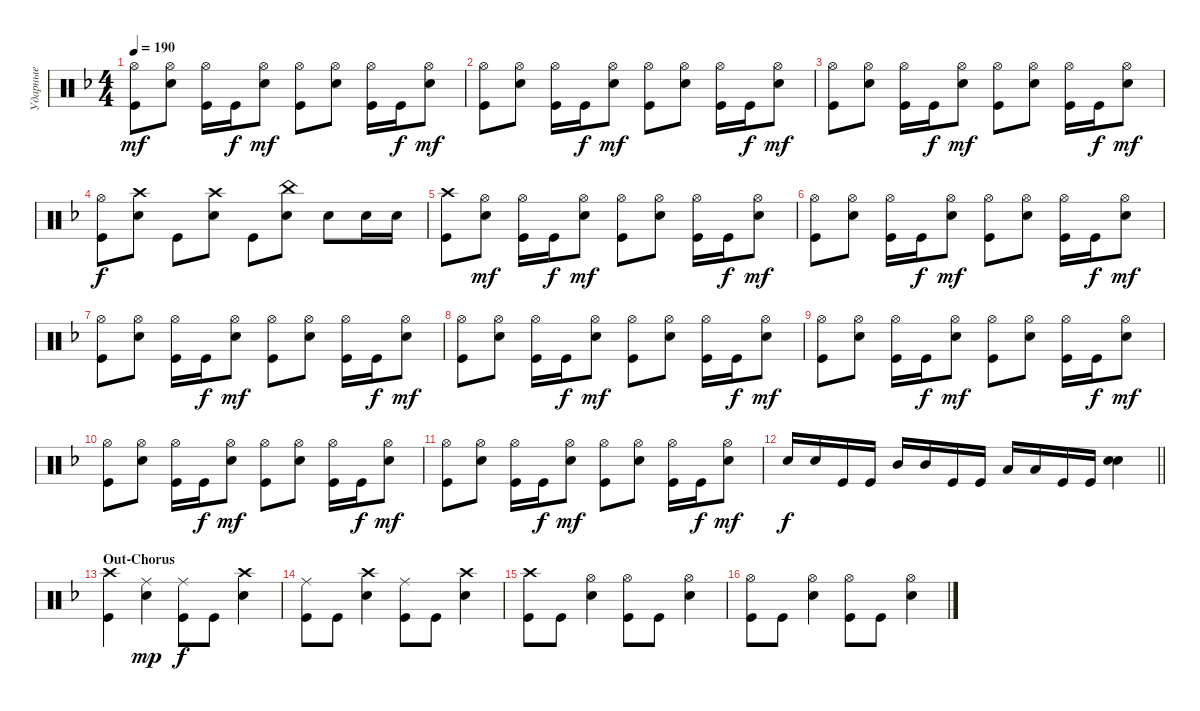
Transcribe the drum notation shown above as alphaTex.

\track ("Ударные" "Ударные") {instrument percussion}
\staff {score}
\articulation defaults
\ts (4 4)
\tempo 190
\clef neutral
\ks dminor
("Kick (hit)" "Hi-Hat (open)").8{dy mf} ("Snare (hit) 2" "Hi-Hat (open)").8 ("Kick (hit)" "Hi-Hat (open)").16 "Kick (hit)".16{dy f} ("Snare (hit) 2" "Hi-Hat (open)").8{dy mf} ("Kick (hit)" "Hi-Hat (open)").8 ("Snare (hit) 2" "Hi-Hat (open)").8 ("Kick (hit)" "Hi-Hat (open)").16 "Kick (hit)".16{dy f} ("Snare (hit) 2" "Hi-Hat (open)").8{dy mf} |
("Kick (hit)" "Hi-Hat (open)").8 ("Snare (hit) 2" "Hi-Hat (open)").8 ("Kick (hit)" "Hi-Hat (open)").16 "Kick (hit)".16{dy f} ("Snare (hit) 2" "Hi-Hat (open)").8{dy mf} ("Kick (hit)" "Hi-Hat (open)").8 ("Snare (hit) 2" "Hi-Hat (open)").8 ("Kick (hit)" "Hi-Hat (open)").16 "Kick (hit)".16{dy f} ("Snare (hit) 2" "Hi-Hat (open)").8{dy mf} |
("Kick (hit)" "Hi-Hat (open)").8 ("Snare (hit) 2" "Hi-Hat (open)").8 ("Kick (hit)" "Hi-Hat (open)").16 "Kick (hit)".16{dy f} ("Snare (hit) 2" "Hi-Hat (open)").8{dy mf} ("Kick (hit)" "Hi-Hat (open)").8 ("Snare (hit) 2" "Hi-Hat (open)").8 ("Kick (hit)" "Hi-Hat (open)").16 "Kick (hit)".16{dy f} ("Snare (hit) 2" "Hi-Hat (open)").8{dy mf} |
("Kick (hit)" "Hi-Hat (open)").8{dy f} ("Snare (hit) 2" "Crash high (hit)").8 "Kick (hit)".8 ("Snare (hit) 2" "Crash high (hit)").8 "Kick (hit)".8 ("Snare (hit) 2" "China (hit)").8 "Snare (hit) 2".8 "Snare (hit) 2".16 "Snare (hit) 2".16 |
("Kick (hit)" "Crash high (hit)").8 ("Snare (hit) 2" "Hi-Hat (open)").8{dy mf} ("Kick (hit)" "Hi-Hat (open)").16 "Kick (hit)".16{dy f} ("Snare (hit) 2" "Hi-Hat (open)").8{dy mf} ("Kick (hit)" "Hi-Hat (open)").8 ("Snare (hit) 2" "Hi-Hat (open)").8 ("Kick (hit)" "Hi-Hat (open)").16 "Kick (hit)".16{dy f} ("Snare (hit) 2" "Hi-Hat (open)").8{dy mf} |
("Kick (hit)" "Hi-Hat (open)").8 ("Snare (hit) 2" "Hi-Hat (open)").8 ("Kick (hit)" "Hi-Hat (open)").16 "Kick (hit)".16{dy f} ("Snare (hit) 2" "Hi-Hat (open)").8{dy mf} ("Kick (hit)" "Hi-Hat (open)").8 ("Snare (hit) 2" "Hi-Hat (open)").8 ("Kick (hit)" "Hi-Hat (open)").16 "Kick (hit)".16{dy f} ("Snare (hit) 2" "Hi-Hat (open)").8{dy mf} |
("Kick (hit)" "Hi-Hat (open)").8 ("Snare (hit) 2" "Hi-Hat (open)").8 ("Kick (hit)" "Hi-Hat (open)").16 "Kick (hit)".16{dy f} ("Snare (hit) 2" "Hi-Hat (open)").8{dy mf} ("Kick (hit)" "Hi-Hat (open)").8 ("Snare (hit) 2" "Hi-Hat (open)").8 ("Kick (hit)" "Hi-Hat (open)").16 "Kick (hit)".16{dy f} ("Snare (hit) 2" "Hi-Hat (open)").8{dy mf} |
("Kick (hit)" "Hi-Hat (open)").8 ("Snare (hit) 2" "Hi-Hat (open)").8 ("Kick (hit)" "Hi-Hat (open)").16 "Kick (hit)".16{dy f} ("Snare (hit) 2" "Hi-Hat (open)").8{dy mf} ("Kick (hit)" "Hi-Hat (open)").8 ("Snare (hit) 2" "Hi-Hat (open)").8 ("Kick (hit)" "Hi-Hat (open)").16 "Kick (hit)".16{dy f} ("Snare (hit) 2" "Hi-Hat (open)").8{dy mf} |
("Kick (hit)" "Hi-Hat (open)").8 ("Snare (hit) 2" "Hi-Hat (open)").8 ("Kick (hit)" "Hi-Hat (open)").16 "Kick (hit)".16{dy f} ("Snare (hit) 2" "Hi-Hat (open)").8{dy mf} ("Kick (hit)" "Hi-Hat (open)").8 ("Snare (hit) 2" "Hi-Hat (open)").8 ("Kick (hit)" "Hi-Hat (open)").16 "Kick (hit)".16{dy f} ("Snare (hit) 2" "Hi-Hat (open)").8{dy mf} |
("Kick (hit)" "Hi-Hat (open)").8 ("Snare (hit) 2" "Hi-Hat (open)").8 ("Kick (hit)" "Hi-Hat (open)").16 "Kick (hit)".16{dy f} ("Snare (hit) 2" "Hi-Hat (open)").8{dy mf} ("Kick (hit)" "Hi-Hat (open)").8 ("Snare (hit) 2" "Hi-Hat (open)").8 ("Kick (hit)" "Hi-Hat (open)").16 "Kick (hit)".16{dy f} ("Snare (hit) 2" "Hi-Hat (open)").8{dy mf} |
("Kick (hit)" "Hi-Hat (open)").8 ("Snare (hit) 2" "Hi-Hat (open)").8 ("Kick (hit)" "Hi-Hat (open)").16 "Kick (hit)".16{dy f} ("Snare (hit) 2" "Hi-Hat (open)").8{dy mf} ("Kick (hit)" "Hi-Hat (open)").8 ("Snare (hit) 2" "Hi-Hat (open)").8 ("Kick (hit)" "Hi-Hat (open)").16 "Kick (hit)".16{dy f} ("Snare (hit) 2" "Hi-Hat (open)").8{dy mf} |
\barLineRight lightlight "Snare (hit) 2".16{dy f} "Snare (hit) 2".16 "Kick (hit)".16 "Kick (hit)".16 "Mid Tom (hit)".16 "Mid Tom (hit)".16 "Kick (hit)".16 "Kick (hit)".16 "Low Tom (hit)".16 "Low Tom (hit)".16 "Kick (hit)".16 "Kick (hit)".16
("Snare (hit) 2" "Snare (hit) 2").4{bd 240} |
\section ("" "Out-Chorus")
("Kick (hit)" "Crash high (hit)").4 ("Snare (hit) 2" "Ride (middle)").4{dy mp} ("Kick (hit)" "Ride (middle)").8{dy f} "Kick (hit)".8 ("Snare (hit) 2" "Crash high (hit)").4 |
("Kick (hit)" "Ride (middle)").8 "Kick (hit)".8 ("Snare (hit) 2" "Crash high (hit)").4 ("Kick (hit)" "Ride (middle)").8 "Kick (hit)".8 ("Snare (hit) 2" "Crash high (hit)").4 |
("Kick (hit)" "Crash high (hit)").8 "Kick (hit)".8 ("Snare (hit) 2" "Hi-Hat (open)").4 ("Kick (hit)" "Hi-Hat (open)").8 "Kick (hit)".8 ("Snare (hit) 2" "Hi-Hat (open)").4 |
("Kick (hit)" "Hi-Hat (open)").8 "Kick (hit)".8 ("Snare (hit) 2" "Hi-Hat (open)").4 ("Kick (hit)" "Hi-Hat (open)").8 "Kick (hit)".8 ("Snare (hit) 2" "Hi-Hat (open)").4
